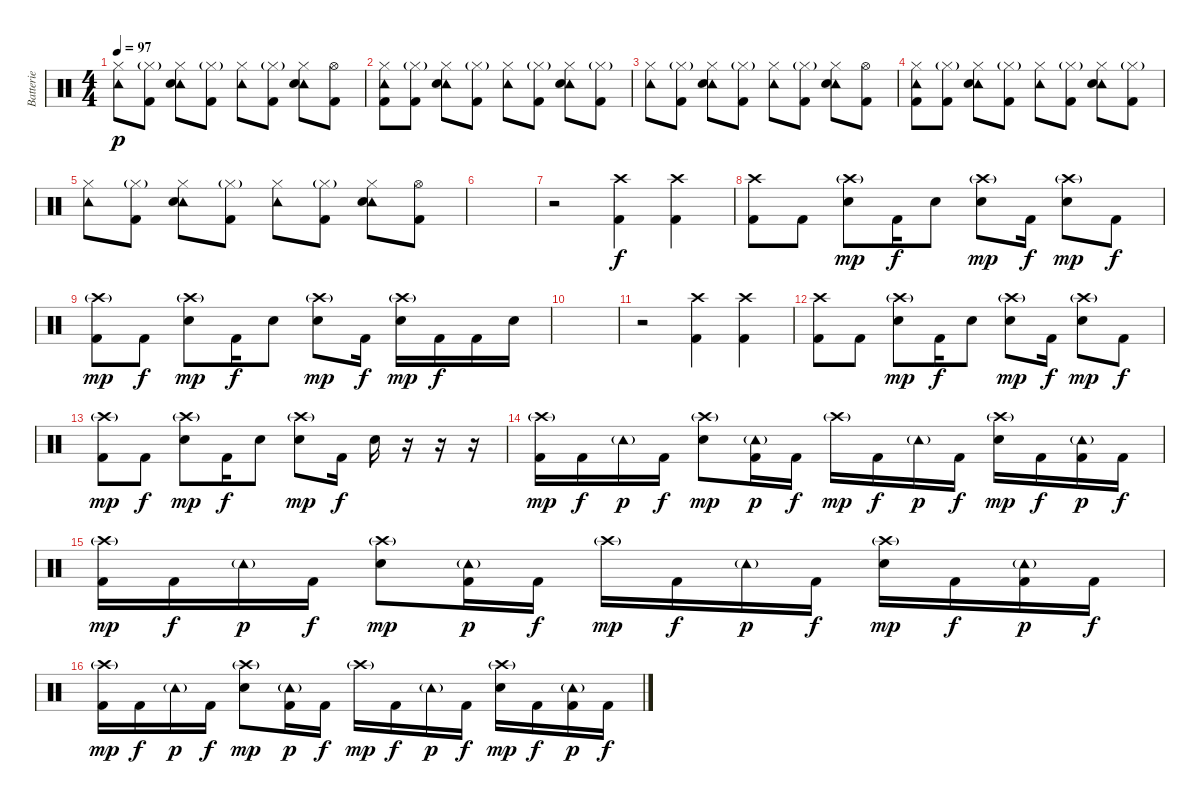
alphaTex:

\track ("Batterie" "Batterie") {instrument percussion}
\staff {score}
\articulation defaults
\ts (4 4)
\tempo 97
\clef neutral
\ks c
("Hi-Hat (closed)" "Tambourine (hit)").8{dy p} ("Hi-Hat (closed)"{g} "Kick (hit) 2").8 ("Hi-Hat (closed)" "Tambourine (hit)" "Snare (hit) 2").8 ("Hi-Hat (closed)"{g} "Kick (hit) 2").8 ("Hi-Hat (closed)" "Tambourine (hit)").8 ("Hi-Hat (closed)"{g} "Kick (hit) 2").8 ("Hi-Hat (closed)" "Tambourine (hit)" "Snare (hit) 2").8 ("Hi-Hat (open)" "Kick (hit) 2").8 |
("Hi-Hat (closed)" "Tambourine (hit)" "Kick (hit) 2").8 ("Hi-Hat (closed)"{g} "Kick (hit) 2").8 ("Hi-Hat (closed)" "Tambourine (hit)" "Snare (hit) 2").8 ("Hi-Hat (closed)"{g} "Kick (hit) 2").8 ("Hi-Hat (closed)" "Tambourine (hit)").8 ("Hi-Hat (closed)"{g} "Kick (hit) 2").8 ("Hi-Hat (closed)" "Tambourine (hit)" "Snare (hit) 2").8 ("Hi-Hat (closed)"{g} "Kick (hit) 2").8 |
("Hi-Hat (closed)" "Tambourine (hit)").8 ("Hi-Hat (closed)"{g} "Kick (hit) 2").8 ("Hi-Hat (closed)" "Tambourine (hit)" "Snare (hit) 2").8 ("Hi-Hat (closed)"{g} "Kick (hit) 2").8 ("Hi-Hat (closed)" "Tambourine (hit)").8 ("Hi-Hat (closed)"{g} "Kick (hit) 2").8 ("Hi-Hat (closed)" "Tambourine (hit)" "Snare (hit) 2").8 ("Hi-Hat (open)" "Kick (hit) 2").8 |
("Hi-Hat (closed)" "Tambourine (hit)" "Kick (hit) 2").8 ("Hi-Hat (closed)"{g} "Kick (hit) 2").8 ("Hi-Hat (closed)" "Tambourine (hit)" "Snare (hit) 2").8 ("Hi-Hat (closed)"{g} "Kick (hit) 2").8 ("Hi-Hat (closed)" "Tambourine (hit)").8 ("Hi-Hat (closed)"{g} "Kick (hit) 2").8 ("Hi-Hat (closed)" "Tambourine (hit)" "Snare (hit) 2").8 ("Hi-Hat (closed)"{g} "Kick (hit) 2").8 |
("Hi-Hat (closed)" "Tambourine (hit)").8 ("Hi-Hat (closed)"{g} "Kick (hit) 2").8 ("Hi-Hat (closed)" "Tambourine (hit)" "Snare (hit) 2").8 ("Hi-Hat (closed)"{g} "Kick (hit) 2").8 ("Hi-Hat (closed)" "Tambourine (hit)").8 ("Hi-Hat (closed)"{g} "Kick (hit) 2").8 ("Hi-Hat (closed)" "Tambourine (hit)" "Snare (hit) 2").8 ("Hi-Hat (open)" "Kick (hit) 2").8 |
|
r.2 ("Crash high (hit)" "Kick (hit) 2").4{dy f} ("Crash high (hit)" "Kick (hit) 2").4 |
("Crash high (hit)" "Kick (hit) 2").8 "Kick (hit) 2".8 ("Crash high (hit)"{g} "Snare (hit) 2").8{dy mp} "Kick (hit) 2".16{dy f} "Snare (hit) 2".8 ("Crash high (hit)"{g} "Snare (hit) 2").8{dy mp} "Kick (hit) 2".16{dy f} ("Crash high (hit)"{g} "Snare (hit) 2").8{dy mp} "Kick (hit) 2".8{dy f} |
("Crash high (hit)"{g} "Kick (hit) 2").8{dy mp} "Kick (hit) 2".8{dy f} ("Crash high (hit)"{g} "Snare (hit) 2").8{dy mp} "Kick (hit) 2".16{dy f} "Snare (hit) 2".8 ("Crash high (hit)"{g} "Snare (hit) 2").8{dy mp} "Kick (hit) 2".16{dy f} ("Crash high (hit)"{g} "Snare (hit) 2").16{dy mp} "Kick (hit) 2".16{dy f} "Kick (hit) 2".16 "Snare (hit) 2".16 |
|
r.2 ("Crash high (hit)" "Kick (hit) 2").4 ("Crash high (hit)" "Kick (hit) 2").4 |
("Crash high (hit)" "Kick (hit) 2").8 "Kick (hit) 2".8 ("Crash high (hit)"{g} "Snare (hit) 2").8{dy mp} "Kick (hit) 2".16{dy f} "Snare (hit) 2".8 ("Crash high (hit)"{g} "Snare (hit) 2").8{dy mp} "Kick (hit) 2".16{dy f} ("Crash high (hit)"{g} "Snare (hit) 2").8{dy mp} "Kick (hit) 2".8{dy f} |
("Crash high (hit)"{g} "Kick (hit) 2").8{dy mp} "Kick (hit) 2".8{dy f} ("Crash high (hit)"{g} "Snare (hit) 2").8{dy mp} "Kick (hit) 2".16{dy f} "Snare (hit) 2".8 ("Crash high (hit)"{g} "Snare (hit) 2").8{dy mp} "Kick (hit) 2".16{dy f} "Snare (hit) 2".16 r.16{volume 0} r.16 r.16 |
("Crash high (hit)"{g} "Kick (hit) 2").16{dy mp volume 10} "Kick (hit) 2".16{dy f} "Tambourine (hit)"{g}.16{dy p} "Kick (hit) 2".16{dy f} ("Crash high (hit)"{g} "Snare (hit) 2").8{dy mp} ("Tambourine (hit)"{g} "Kick (hit) 2").16{dy p} "Kick (hit) 2".16{dy f} "Crash high (hit)"{g}.16{dy mp} "Kick (hit) 2".16{dy f} "Tambourine (hit)"{g}.16{dy p} "Kick (hit) 2".16{dy f} ("Crash high (hit)"{g} "Snare (hit) 2").16{dy mp} "Kick (hit) 2".16{dy f} ("Tambourine (hit)"{g} "Kick (hit) 2").16{dy p} "Kick (hit) 2".16{dy f} |
("Crash high (hit)"{g} "Kick (hit) 2").16{dy mp} "Kick (hit) 2".16{dy f} "Tambourine (hit)"{g}.16{dy p} "Kick (hit) 2".16{dy f} ("Crash high (hit)"{g} "Snare (hit) 2").8{dy mp} ("Tambourine (hit)"{g} "Kick (hit) 2").16{dy p} "Kick (hit) 2".16{dy f} "Crash high (hit)"{g}.16{dy mp} "Kick (hit) 2".16{dy f} "Tambourine (hit)"{g}.16{dy p} "Kick (hit) 2".16{dy f} ("Crash high (hit)"{g} "Snare (hit) 2").16{dy mp} "Kick (hit) 2".16{dy f} ("Tambourine (hit)"{g} "Kick (hit) 2").16{dy p} "Kick (hit) 2".16{dy f} |
("Crash high (hit)"{g} "Kick (hit) 2").16{dy mp} "Kick (hit) 2".16{dy f} "Tambourine (hit)"{g}.16{dy p} "Kick (hit) 2".16{dy f} ("Crash high (hit)"{g} "Snare (hit) 2").8{dy mp} ("Tambourine (hit)"{g} "Kick (hit) 2").16{dy p} "Kick (hit) 2".16{dy f} "Crash high (hit)"{g}.16{dy mp} "Kick (hit) 2".16{dy f} "Tambourine (hit)"{g}.16{dy p} "Kick (hit) 2".16{dy f} ("Crash high (hit)"{g} "Snare (hit) 2").16{dy mp} "Kick (hit) 2".16{dy f} ("Tambourine (hit)"{g} "Kick (hit) 2").16{dy p} "Kick (hit) 2".16{dy f}
